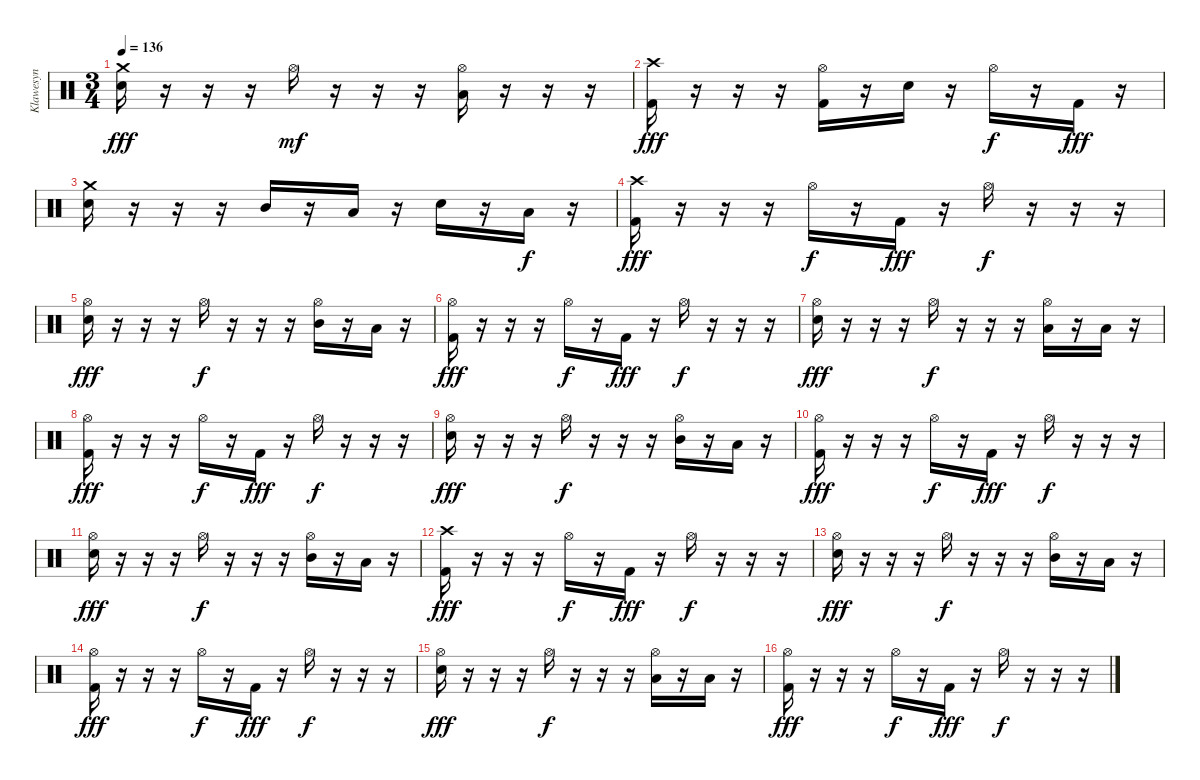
\track ("Klawesyn" "Klawesyn") {instrument percussion}
\staff {score}
\articulation defaults
\ts (3 4)
\tempo 136
\clef neutral
\ks c
("Crash medium (hit)" "Snare (hit) 2").16{dy fff} r.16 r.16 r.16 "Hi-Hat (open)".16{dy mf} r.16 r.16 r.16 ("Hi-Hat (open)" "Low Tom (hit)").16 r.16 r.16 r.16 |
("Crash high (hit)" "Kick (hit) 2").16{dy fff} r.16 r.16 r.16 ("Hi-Hat (open)" "Kick (hit) 2").16 r.16 "Snare (hit) 2".16 r.16 "Hi-Hat (open)".16{dy f} r.16 "Kick (hit) 2".16{dy fff} r.16 |
("Crash medium (hit)" "Snare (hit) 2").16 r.16 r.16 r.16 "Mid Tom (hit)".16 r.16 "Low Tom (hit)".16 r.16 "Snare (hit) 2".16 r.16 "Low Tom (hit)".16{dy f} r.16 |
("Crash high (hit)" "Kick (hit) 2").16{dy fff} r.16 r.16 r.16 "Hi-Hat (open)".16{dy f} r.16 "Kick (hit) 2".16{dy fff} r.16 "Hi-Hat (open)".16{dy f} r.16 r.16 r.16 |
("Hi-Hat (open)" "Snare (hit) 2").16{dy fff} r.16 r.16 r.16 "Hi-Hat (open)".16{dy f} r.16 r.16 r.16 ("Hi-Hat (open)" "Mid Tom (hit)").16 r.16 "Low Tom (hit)".16 r.16 |
("Hi-Hat (open)" "Kick (hit) 2").16{dy fff} r.16 r.16 r.16 "Hi-Hat (open)".16{dy f} r.16 "Kick (hit) 2".16{dy fff} r.16 "Hi-Hat (open)".16{dy f} r.16 r.16 r.16 |
("Hi-Hat (open)" "Snare (hit) 2").16{dy fff} r.16 r.16 r.16 "Hi-Hat (open)".16{dy f} r.16 r.16 r.16 ("Hi-Hat (open)" "Low Tom (hit)").16 r.16 "Low Tom (hit)".16 r.16 |
("Hi-Hat (open)" "Kick (hit) 2").16{dy fff} r.16 r.16 r.16 "Hi-Hat (open)".16{dy f} r.16 "Kick (hit) 2".16{dy fff} r.16 "Hi-Hat (open)".16{dy f} r.16 r.16 r.16 |
("Hi-Hat (open)" "Snare (hit) 2").16{dy fff} r.16 r.16 r.16 "Hi-Hat (open)".16{dy f} r.16 r.16 r.16 ("Hi-Hat (open)" "Mid Tom (hit)").16 r.16 "Low Tom (hit)".16 r.16 |
("Hi-Hat (open)" "Kick (hit) 2").16{dy fff} r.16 r.16 r.16 "Hi-Hat (open)".16{dy f} r.16 "Kick (hit) 2".16{dy fff} r.16 "Hi-Hat (open)".16{dy f} r.16 r.16 r.16 |
("Hi-Hat (open)" "Snare (hit) 2").16{dy fff} r.16 r.16 r.16 "Hi-Hat (open)".16{dy f} r.16 r.16 r.16 ("Hi-Hat (open)" "Mid Tom (hit)").16 r.16 "Low Tom (hit)".16 r.16 |
("Crash high (hit)" "Kick (hit) 2").16{dy fff} r.16 r.16 r.16 "Hi-Hat (open)".16{dy f} r.16 "Kick (hit) 2".16{dy fff} r.16 "Hi-Hat (open)".16{dy f} r.16 r.16 r.16 |
("Hi-Hat (open)" "Snare (hit) 2").16{dy fff} r.16 r.16 r.16 "Hi-Hat (open)".16{dy f} r.16 r.16 r.16 ("Hi-Hat (open)" "Mid Tom (hit)").16 r.16 "Low Tom (hit)".16 r.16 |
("Hi-Hat (open)" "Kick (hit) 2").16{dy fff} r.16 r.16 r.16 "Hi-Hat (open)".16{dy f} r.16 "Kick (hit) 2".16{dy fff} r.16 "Hi-Hat (open)".16{dy f} r.16 r.16 r.16 |
("Hi-Hat (open)" "Snare (hit) 2").16{dy fff} r.16 r.16 r.16 "Hi-Hat (open)".16{dy f} r.16 r.16 r.16 ("Hi-Hat (open)" "Low Tom (hit)").16 r.16 "Low Tom (hit)".16 r.16 |
("Hi-Hat (open)" "Kick (hit) 2").16{dy fff} r.16 r.16 r.16 "Hi-Hat (open)".16{dy f} r.16 "Kick (hit) 2".16{dy fff} r.16 "Hi-Hat (open)".16{dy f} r.16 r.16 r.16
